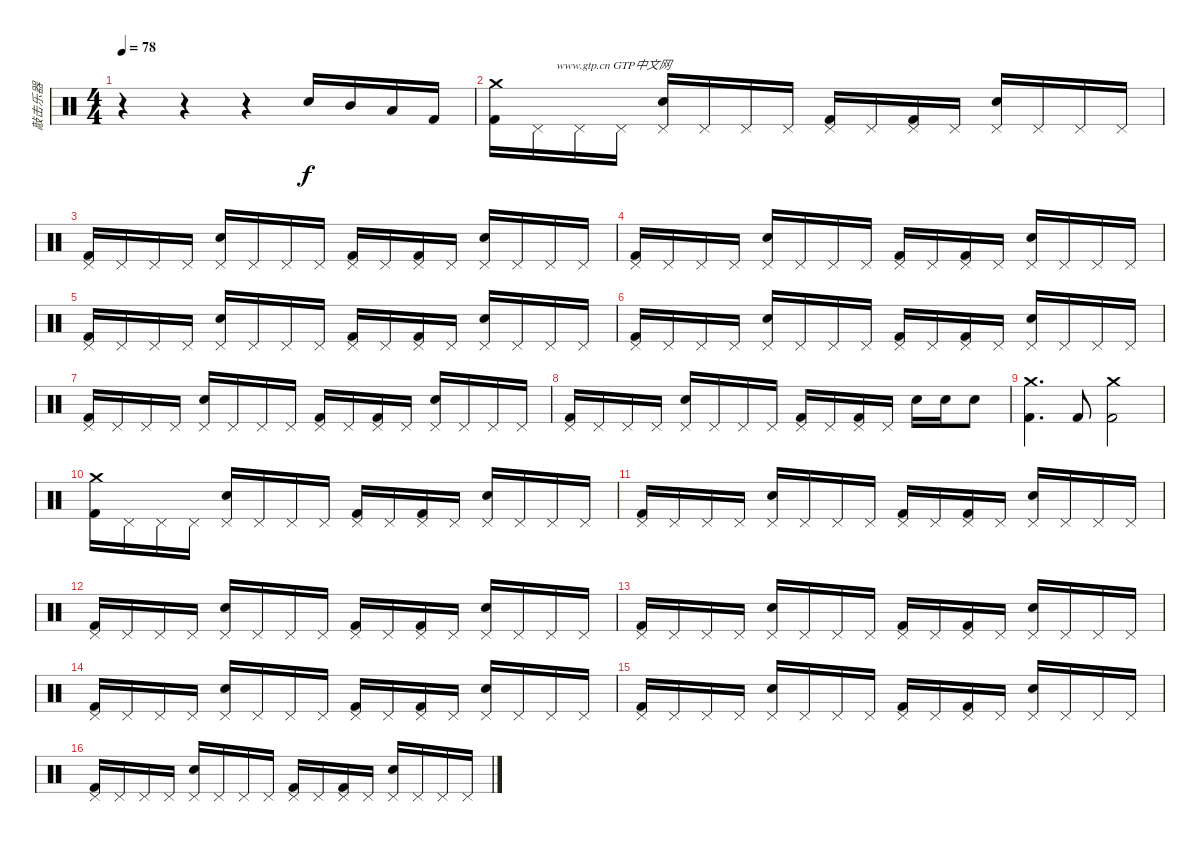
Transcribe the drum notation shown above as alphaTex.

\track ("敲击乐器" "敲击乐器") {instrument percussion}
\staff {score}
\articulation defaults
\ts (4 4)
\tempo 78
\clef neutral
\ks c
r.4{dy f} r.4 r.4 "Snare (hit) 2".16 "Mid Tom (hit)".16 "Low Tom (hit)".16 "Kick (hit) 2".16 |
("Crash medium (hit)" "Kick (hit) 2").16{txt "                    www.gtp.cn GTP中文网"} "Pedal Hi-Hat (hit)".16 "Pedal Hi-Hat (hit)".16 "Pedal Hi-Hat (hit)".16 ("Pedal Hi-Hat (hit)" "Snare (hit) 2").16 "Pedal Hi-Hat (hit)".16 "Pedal Hi-Hat (hit)".16 "Pedal Hi-Hat (hit)".16 ("Pedal Hi-Hat (hit)" "Kick (hit) 2").16 "Pedal Hi-Hat (hit)".16 ("Pedal Hi-Hat (hit)" "Kick (hit) 2").16 "Pedal Hi-Hat (hit)".16 ("Pedal Hi-Hat (hit)" "Snare (hit) 2").16 "Pedal Hi-Hat (hit)".16 "Pedal Hi-Hat (hit)".16 "Pedal Hi-Hat (hit)".16 |
("Pedal Hi-Hat (hit)" "Kick (hit) 2").16 "Pedal Hi-Hat (hit)".16 "Pedal Hi-Hat (hit)".16 "Pedal Hi-Hat (hit)".16 ("Pedal Hi-Hat (hit)" "Snare (hit) 2").16 "Pedal Hi-Hat (hit)".16 "Pedal Hi-Hat (hit)".16 "Pedal Hi-Hat (hit)".16 ("Pedal Hi-Hat (hit)" "Kick (hit) 2").16 "Pedal Hi-Hat (hit)".16 ("Pedal Hi-Hat (hit)" "Kick (hit) 2").16 "Pedal Hi-Hat (hit)".16 ("Pedal Hi-Hat (hit)" "Snare (hit) 2").16 "Pedal Hi-Hat (hit)".16 "Pedal Hi-Hat (hit)".16 "Pedal Hi-Hat (hit)".16 |
("Pedal Hi-Hat (hit)" "Kick (hit) 2").16 "Pedal Hi-Hat (hit)".16 "Pedal Hi-Hat (hit)".16 "Pedal Hi-Hat (hit)".16 ("Pedal Hi-Hat (hit)" "Snare (hit) 2").16 "Pedal Hi-Hat (hit)".16 "Pedal Hi-Hat (hit)".16 "Pedal Hi-Hat (hit)".16 ("Pedal Hi-Hat (hit)" "Kick (hit) 2").16 "Pedal Hi-Hat (hit)".16 ("Pedal Hi-Hat (hit)" "Kick (hit) 2").16 "Pedal Hi-Hat (hit)".16 ("Pedal Hi-Hat (hit)" "Snare (hit) 2").16 "Pedal Hi-Hat (hit)".16 "Pedal Hi-Hat (hit)".16 "Pedal Hi-Hat (hit)".16 |
("Pedal Hi-Hat (hit)" "Kick (hit) 2").16 "Pedal Hi-Hat (hit)".16 "Pedal Hi-Hat (hit)".16 "Pedal Hi-Hat (hit)".16 ("Pedal Hi-Hat (hit)" "Snare (hit) 2").16 "Pedal Hi-Hat (hit)".16 "Pedal Hi-Hat (hit)".16 "Pedal Hi-Hat (hit)".16 ("Pedal Hi-Hat (hit)" "Kick (hit) 2").16 "Pedal Hi-Hat (hit)".16 ("Pedal Hi-Hat (hit)" "Kick (hit) 2").16 "Pedal Hi-Hat (hit)".16 ("Pedal Hi-Hat (hit)" "Snare (hit) 2").16 "Pedal Hi-Hat (hit)".16 "Pedal Hi-Hat (hit)".16 "Pedal Hi-Hat (hit)".16 |
("Pedal Hi-Hat (hit)" "Kick (hit) 2").16 "Pedal Hi-Hat (hit)".16 "Pedal Hi-Hat (hit)".16 "Pedal Hi-Hat (hit)".16 ("Pedal Hi-Hat (hit)" "Snare (hit) 2").16 "Pedal Hi-Hat (hit)".16 "Pedal Hi-Hat (hit)".16 "Pedal Hi-Hat (hit)".16 ("Pedal Hi-Hat (hit)" "Kick (hit) 2").16 "Pedal Hi-Hat (hit)".16 ("Pedal Hi-Hat (hit)" "Kick (hit) 2").16 "Pedal Hi-Hat (hit)".16 ("Pedal Hi-Hat (hit)" "Snare (hit) 2").16 "Pedal Hi-Hat (hit)".16 "Pedal Hi-Hat (hit)".16 "Pedal Hi-Hat (hit)".16 |
("Pedal Hi-Hat (hit)" "Kick (hit) 2").16 "Pedal Hi-Hat (hit)".16 "Pedal Hi-Hat (hit)".16 "Pedal Hi-Hat (hit)".16 ("Pedal Hi-Hat (hit)" "Snare (hit) 2").16 "Pedal Hi-Hat (hit)".16 "Pedal Hi-Hat (hit)".16 "Pedal Hi-Hat (hit)".16 ("Pedal Hi-Hat (hit)" "Kick (hit) 2").16 "Pedal Hi-Hat (hit)".16 ("Pedal Hi-Hat (hit)" "Kick (hit) 2").16 "Pedal Hi-Hat (hit)".16 ("Pedal Hi-Hat (hit)" "Snare (hit) 2").16 "Pedal Hi-Hat (hit)".16 "Pedal Hi-Hat (hit)".16 "Pedal Hi-Hat (hit)".16 |
("Pedal Hi-Hat (hit)" "Kick (hit) 2").16 "Pedal Hi-Hat (hit)".16 "Pedal Hi-Hat (hit)".16 "Pedal Hi-Hat (hit)".16 ("Pedal Hi-Hat (hit)" "Snare (hit) 2").16 "Pedal Hi-Hat (hit)".16 "Pedal Hi-Hat (hit)".16 "Pedal Hi-Hat (hit)".16 ("Pedal Hi-Hat (hit)" "Kick (hit) 2").16 "Pedal Hi-Hat (hit)".16 ("Pedal Hi-Hat (hit)" "Kick (hit) 2").16 "Pedal Hi-Hat (hit)".16 "Snare (hit) 2".16 "Snare (hit) 2".16 "Snare (hit) 2".8 |
("Crash medium (hit)" "Kick (hit) 2").4{d} "Kick (hit) 2".8 ("Crash medium (hit)" "Kick (hit) 2").2 |
("Crash medium (hit)" "Kick (hit) 2").16 "Pedal Hi-Hat (hit)".16 "Pedal Hi-Hat (hit)".16 "Pedal Hi-Hat (hit)".16 ("Pedal Hi-Hat (hit)" "Snare (hit) 2").16 "Pedal Hi-Hat (hit)".16 "Pedal Hi-Hat (hit)".16 "Pedal Hi-Hat (hit)".16 ("Pedal Hi-Hat (hit)" "Kick (hit) 2").16 "Pedal Hi-Hat (hit)".16 ("Pedal Hi-Hat (hit)" "Kick (hit) 2").16 "Pedal Hi-Hat (hit)".16 ("Pedal Hi-Hat (hit)" "Snare (hit) 2").16 "Pedal Hi-Hat (hit)".16 "Pedal Hi-Hat (hit)".16 "Pedal Hi-Hat (hit)".16 |
("Pedal Hi-Hat (hit)" "Kick (hit) 2").16 "Pedal Hi-Hat (hit)".16 "Pedal Hi-Hat (hit)".16 "Pedal Hi-Hat (hit)".16 ("Pedal Hi-Hat (hit)" "Snare (hit) 2").16 "Pedal Hi-Hat (hit)".16 "Pedal Hi-Hat (hit)".16 "Pedal Hi-Hat (hit)".16 ("Pedal Hi-Hat (hit)" "Kick (hit) 2").16 "Pedal Hi-Hat (hit)".16 ("Pedal Hi-Hat (hit)" "Kick (hit) 2").16 "Pedal Hi-Hat (hit)".16 ("Pedal Hi-Hat (hit)" "Snare (hit) 2").16 "Pedal Hi-Hat (hit)".16 "Pedal Hi-Hat (hit)".16 "Pedal Hi-Hat (hit)".16 |
("Pedal Hi-Hat (hit)" "Kick (hit) 2").16 "Pedal Hi-Hat (hit)".16 "Pedal Hi-Hat (hit)".16 "Pedal Hi-Hat (hit)".16 ("Pedal Hi-Hat (hit)" "Snare (hit) 2").16 "Pedal Hi-Hat (hit)".16 "Pedal Hi-Hat (hit)".16 "Pedal Hi-Hat (hit)".16 ("Pedal Hi-Hat (hit)" "Kick (hit) 2").16 "Pedal Hi-Hat (hit)".16 ("Pedal Hi-Hat (hit)" "Kick (hit) 2").16 "Pedal Hi-Hat (hit)".16 ("Pedal Hi-Hat (hit)" "Snare (hit) 2").16 "Pedal Hi-Hat (hit)".16 "Pedal Hi-Hat (hit)".16 "Pedal Hi-Hat (hit)".16 |
("Pedal Hi-Hat (hit)" "Kick (hit) 2").16 "Pedal Hi-Hat (hit)".16 "Pedal Hi-Hat (hit)".16 "Pedal Hi-Hat (hit)".16 ("Pedal Hi-Hat (hit)" "Snare (hit) 2").16 "Pedal Hi-Hat (hit)".16 "Pedal Hi-Hat (hit)".16 "Pedal Hi-Hat (hit)".16 ("Pedal Hi-Hat (hit)" "Kick (hit) 2").16 "Pedal Hi-Hat (hit)".16 ("Pedal Hi-Hat (hit)" "Kick (hit) 2").16 "Pedal Hi-Hat (hit)".16 ("Pedal Hi-Hat (hit)" "Snare (hit) 2").16 "Pedal Hi-Hat (hit)".16 "Pedal Hi-Hat (hit)".16 "Pedal Hi-Hat (hit)".16 |
("Pedal Hi-Hat (hit)" "Kick (hit) 2").16 "Pedal Hi-Hat (hit)".16 "Pedal Hi-Hat (hit)".16 "Pedal Hi-Hat (hit)".16 ("Pedal Hi-Hat (hit)" "Snare (hit) 2").16 "Pedal Hi-Hat (hit)".16 "Pedal Hi-Hat (hit)".16 "Pedal Hi-Hat (hit)".16 ("Pedal Hi-Hat (hit)" "Kick (hit) 2").16 "Pedal Hi-Hat (hit)".16 ("Pedal Hi-Hat (hit)" "Kick (hit) 2").16 "Pedal Hi-Hat (hit)".16 ("Pedal Hi-Hat (hit)" "Snare (hit) 2").16 "Pedal Hi-Hat (hit)".16 "Pedal Hi-Hat (hit)".16 "Pedal Hi-Hat (hit)".16 |
("Pedal Hi-Hat (hit)" "Kick (hit) 2").16 "Pedal Hi-Hat (hit)".16 "Pedal Hi-Hat (hit)".16 "Pedal Hi-Hat (hit)".16 ("Pedal Hi-Hat (hit)" "Snare (hit) 2").16 "Pedal Hi-Hat (hit)".16 "Pedal Hi-Hat (hit)".16 "Pedal Hi-Hat (hit)".16 ("Pedal Hi-Hat (hit)" "Kick (hit) 2").16 "Pedal Hi-Hat (hit)".16 ("Pedal Hi-Hat (hit)" "Kick (hit) 2").16 "Pedal Hi-Hat (hit)".16 ("Pedal Hi-Hat (hit)" "Snare (hit) 2").16 "Pedal Hi-Hat (hit)".16 "Pedal Hi-Hat (hit)".16 "Pedal Hi-Hat (hit)".16 |
("Pedal Hi-Hat (hit)" "Kick (hit) 2").16 "Pedal Hi-Hat (hit)".16 "Pedal Hi-Hat (hit)".16 "Pedal Hi-Hat (hit)".16 ("Pedal Hi-Hat (hit)" "Snare (hit) 2").16 "Pedal Hi-Hat (hit)".16 "Pedal Hi-Hat (hit)".16 "Pedal Hi-Hat (hit)".16 ("Pedal Hi-Hat (hit)" "Kick (hit) 2").16 "Pedal Hi-Hat (hit)".16 ("Pedal Hi-Hat (hit)" "Kick (hit) 2").16 "Pedal Hi-Hat (hit)".16 ("Pedal Hi-Hat (hit)" "Snare (hit) 2").16 "Pedal Hi-Hat (hit)".16 "Pedal Hi-Hat (hit)".16 "Pedal Hi-Hat (hit)".16
